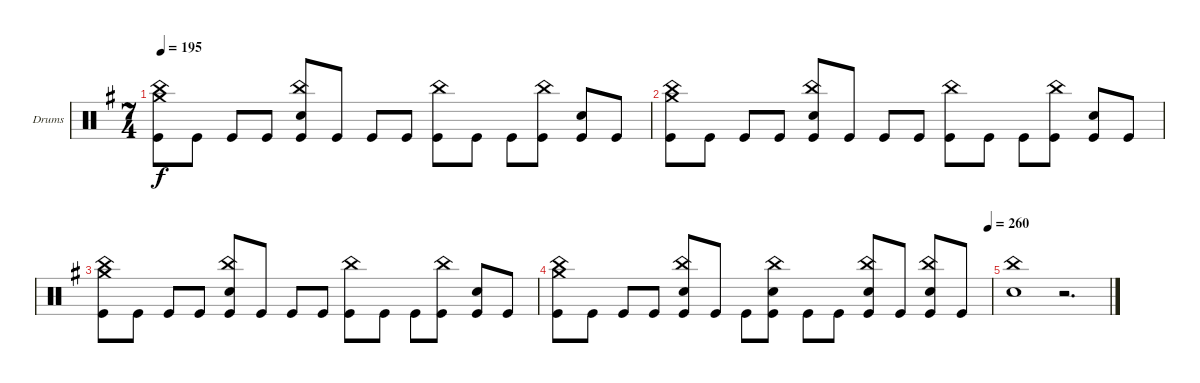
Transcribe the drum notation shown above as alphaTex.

\defaultSystemsLayout 4
\bracketExtendMode groupsimilarinstruments
\firstSystemTrackNameOrientation horizontal
\otherSystemsTrackNameOrientation horizontal
\track ("Drumkit" "Drums") {instrument percussion}
\staff {score}
\articulation defaults
\ts (7 4)
\tempo 195
\clef neutral
\ks eminor
("Kick (hit)" "China (hit)" "Crash medium (hit)").8{dy f} "Kick (hit)".8 "Kick (hit)".8 "Kick (hit)".8 ("Kick (hit)" "China (hit)" "Snare (hit) 2").8 "Kick (hit)".8 "Kick (hit)".8 "Kick (hit)".8 ("China (hit)" "Kick (hit)").8 "Kick (hit)".8 "Kick (hit)".8 ("China (hit)" "Kick (hit)").8 ("Kick (hit)" "Snare (hit) 2").8 "Kick (hit)".8 |
("Kick (hit)" "China (hit)" "Crash medium (hit)").8 "Kick (hit)".8 "Kick (hit)".8 "Kick (hit)".8 ("Kick (hit)" "China (hit)" "Snare (hit) 2").8 "Kick (hit)".8 "Kick (hit)".8 "Kick (hit)".8 ("China (hit)" "Kick (hit)").8 "Kick (hit)".8 "Kick (hit)".8 ("China (hit)" "Kick (hit)").8 ("Kick (hit)" "Snare (hit) 2").8 "Kick (hit)".8 |
("Kick (hit)" "China (hit)" "Crash medium (hit)").8 "Kick (hit)".8 "Kick (hit)".8 "Kick (hit)".8 ("Kick (hit)" "China (hit)" "Snare (hit) 2").8 "Kick (hit)".8 "Kick (hit)".8 "Kick (hit)".8 ("China (hit)" "Kick (hit)").8 "Kick (hit)".8 "Kick (hit)".8 ("China (hit)" "Kick (hit)").8 ("Kick (hit)" "Snare (hit) 2").8 "Kick (hit)".8 |
\tempo (260 0.99375)
("Kick (hit)" "China (hit)" "Crash medium (hit)").8 "Kick (hit)".8 "Kick (hit)".8 "Kick (hit)".8 ("Kick (hit)" "China (hit)" "Snare (hit) 2").8 "Kick (hit)".8 "Kick (hit)".8 ("Kick (hit)" "Snare (hit) 2" "China (hit)").8 "Kick (hit)".8{beam invert} "Kick (hit)".8 ("Kick (hit)" "Snare (hit) 2" "China (hit)").8 "Kick (hit)".8 ("Kick (hit)" "Snare (hit) 2" "China (hit)").8 "Kick (hit)".8 |
("Snare (hit) 2" "China (hit)").1 r.2{d}
